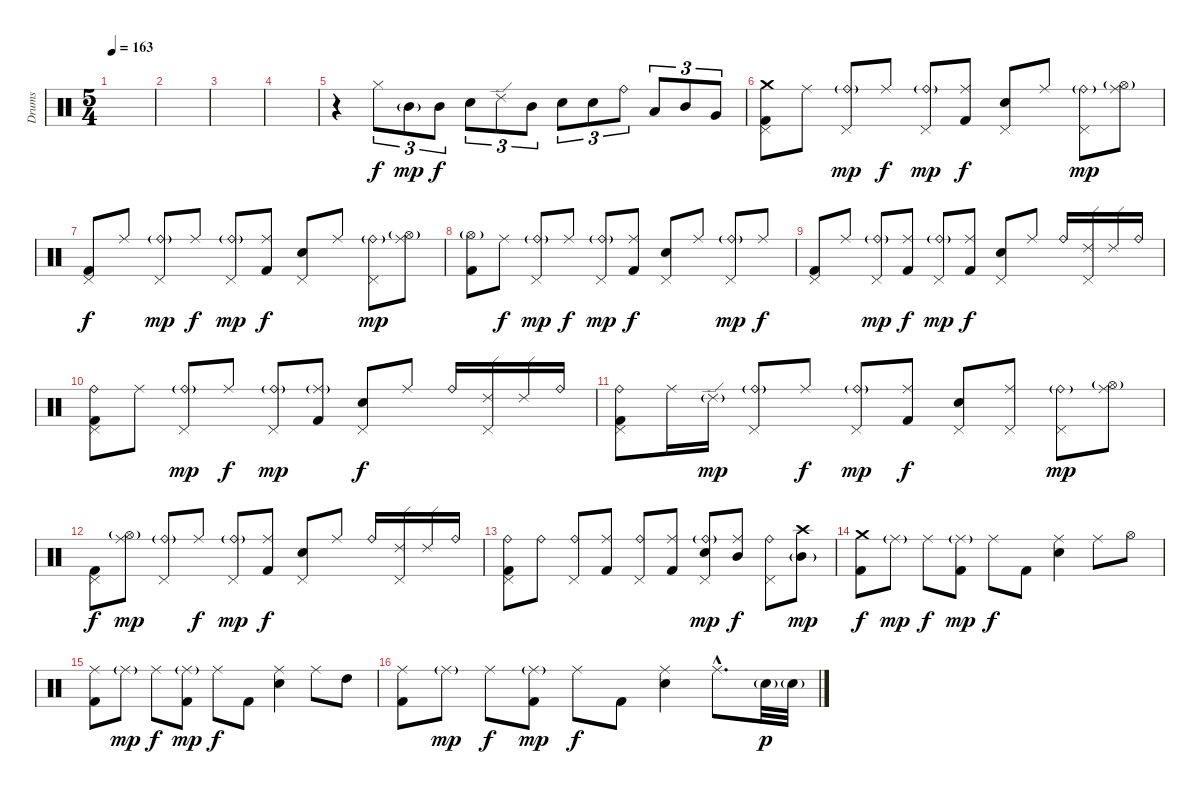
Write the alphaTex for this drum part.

\track ("Drums" "Drums") {instrument percussion}
\staff {score}
\articulation defaults
\ts (5 4)
\tempo 163
\clef neutral
\ks c
|
|
|
|
r.4 "Hi-Hat (closed)".8{tu (3 2)} "Mid Tom (hit)"{g}.8{tu (3 2) dy mp} "Mid Tom (hit)".8{tu (3 2) dy f} "Electric Snare (hit)".8{tu (3 2)} "Ride (edge) 2".8{tu (3 2)} "Mid Tom (hit)".8{tu (3 2)} "Electric Snare (hit)".8{tu (3 2)} "Electric Snare (hit)".8{tu (3 2)} "Ride (bell)".8{tu (3 2)} "Low Tom (hit)".8{tu (3 2)} "Mid Tom (hit)".8{tu (3 2)} "Very Low Tom (hit)".8{tu (3 2)} |
("Crash medium (hit)" "Pedal Hi-Hat (hit)" "Kick (hit) 2").8 "Ride (middle)".8 ("Ride (bell)"{g} "Pedal Hi-Hat (hit)").8{dy mp} "Ride (middle)".8{dy f} ("Ride (bell)"{g} "Pedal Hi-Hat (hit)").8{dy mp} ("Ride (middle)" "Kick (hit) 2").8{dy f} ("Pedal Hi-Hat (hit)" "Electric Snare (hit)").8 "Ride (middle)".8 ("Ride (bell)"{g} "Pedal Hi-Hat (hit)").8{dy mp} ("Ride (middle)" "Hi-Hat (open)"{g}).8 |
("Pedal Hi-Hat (hit)" "Kick (hit) 2").8{dy f} "Ride (middle)".8 ("Ride (bell)"{g} "Pedal Hi-Hat (hit)").8{dy mp} "Ride (middle)".8{dy f} ("Ride (bell)"{g} "Pedal Hi-Hat (hit)").8{dy mp} ("Ride (middle)" "Kick (hit) 2").8{dy f} ("Pedal Hi-Hat (hit)" "Electric Snare (hit)").8 "Ride (middle)".8 ("Ride (bell)"{g} "Pedal Hi-Hat (hit)").8{dy mp} ("Ride (middle)" "Hi-Hat (open)"{g}).8 |
("Hi-Hat (open)"{g} "Kick (hit) 2").8 "Ride (middle)".8{dy f} ("Ride (bell)"{g} "Pedal Hi-Hat (hit)").8{dy mp} "Ride (middle)".8{dy f} ("Ride (bell)"{g} "Pedal Hi-Hat (hit)").8{dy mp} ("Ride (middle)" "Kick (hit) 2").8{dy f} ("Pedal Hi-Hat (hit)" "Electric Snare (hit)").8 "Ride (middle)".8 ("Ride (bell)"{g} "Pedal Hi-Hat (hit)").8{dy mp} "Ride (middle)".8{dy f} |
("Pedal Hi-Hat (hit)" "Kick (hit) 2").8 "Ride (middle)".8 ("Ride (bell)"{g} "Pedal Hi-Hat (hit)").8{dy mp} ("Ride (middle)" "Kick (hit) 2").8{dy f} ("Ride (bell)"{g} "Pedal Hi-Hat (hit)").8{dy mp} ("Ride (middle)" "Kick (hit) 2").8{dy f} ("Pedal Hi-Hat (hit)" "Electric Snare (hit)").8 "Ride (middle)".8 "Ride (bell)".16 ("Ride (edge) 2" "Pedal Hi-Hat (hit)").16 "Ride (edge) 2".16 "Ride (bell)".16 |
("Ride (bell)" "Pedal Hi-Hat (hit)" "Kick (hit) 2").8 "Ride (middle)".8 ("Ride (bell)"{g} "Pedal Hi-Hat (hit)").8{dy mp} "Ride (middle)".8{dy f} ("Ride (bell)"{g} "Pedal Hi-Hat (hit)").8{dy mp} ("Ride (middle)"{g} "Kick (hit) 2").8 ("Pedal Hi-Hat (hit)" "Electric Snare (hit)").8{dy f} "Ride (middle)".8 "Ride (bell)".16 ("Ride (edge) 2" "Pedal Hi-Hat (hit)").16 "Ride (edge) 2".16 "Ride (bell)".16 |
("Ride (bell)" "Pedal Hi-Hat (hit)" "Kick (hit) 2").8 "Ride (middle)".16 "Ride (edge) 2"{g}.16{dy mp} ("Ride (bell)"{g} "Pedal Hi-Hat (hit)").8 "Ride (middle)".8{dy f} ("Ride (bell)"{g} "Pedal Hi-Hat (hit)").8{dy mp} ("Ride (middle)" "Kick (hit) 2").8{dy f} ("Pedal Hi-Hat (hit)" "Electric Snare (hit)").8 ("Ride (middle)" "Pedal Hi-Hat (hit)").8 ("Ride (bell)"{g} "Pedal Hi-Hat (hit)").8{dy mp} ("Ride (middle)" "Hi-Hat (open)"{g}).8 |
("Pedal Hi-Hat (hit)" "Kick (hit) 2").8{dy f} ("Ride (middle)" "Hi-Hat (open)"{g}).8{dy mp} ("Ride (bell)"{g} "Pedal Hi-Hat (hit)").8 "Ride (middle)".8{dy f} ("Ride (bell)"{g} "Pedal Hi-Hat (hit)").8{dy mp} ("Ride (middle)" "Kick (hit) 2").8{dy f} ("Pedal Hi-Hat (hit)" "Electric Snare (hit)").8 "Ride (middle)".8 "Ride (bell)".16 ("Ride (edge) 2" "Pedal Hi-Hat (hit)").16 "Ride (edge) 2".16 "Ride (bell)".16 |
("Ride (bell)" "Pedal Hi-Hat (hit)" "Kick (hit) 2").8 "Ride (bell)".8 ("Ride (bell)" "Pedal Hi-Hat (hit)").8 ("Ride (middle)" "Kick (hit) 2").8 ("Ride (bell)" "Pedal Hi-Hat (hit)").8 ("Ride (middle)" "Kick (hit) 2").8 ("Ride (bell)"{g} "Pedal Hi-Hat (hit)" "Electric Snare (hit)").8{dy mp} ("Ride (middle)" "Mid Tom (hit)").8{dy f} ("Ride (bell)" "Pedal Hi-Hat (hit)").8 ("Crash high (hit)" "Mid Tom (hit)"{g}).8{dy mp} |
("Crash medium (hit)" "Kick (hit) 2").8{dy f} "Ride (middle)"{g}.8{dy mp} "Ride (middle)".8{dy f} ("Ride (middle)"{g} "Kick (hit) 2").8{dy mp} "Ride (middle)".8{dy f} "Kick (hit) 2".8 ("Ride (middle)" "Electric Snare (hit)").4 "Ride (middle)".8 "Hi-Hat (open)".8 |
("Ride (middle)" "Kick (hit) 2").8 "Ride (middle)"{g}.8{dy mp} "Ride (middle)".8{dy f} ("Ride (middle)"{g} "Kick (hit) 2").8{dy mp} "Ride (middle)".8{dy f} "Kick (hit) 2".8 ("Ride (middle)" "Electric Snare (hit)").4 "Ride (middle)".8 "High Tom (hit)".8 |
("Ride (middle)" "Kick (hit) 2").8 "Ride (middle)"{g}.8{dy mp} "Ride (middle)".8{dy f} ("Ride (middle)"{g} "Kick (hit) 2").8{dy mp} "Ride (middle)".8{dy f} "Kick (hit) 2".8 ("Ride (middle)" "Electric Snare (hit)").4 "Ride (middle)"{hac}.8{d} "Electric Snare (hit)"{g}.32{dy p} "Electric Snare (hit)"{g}.32
